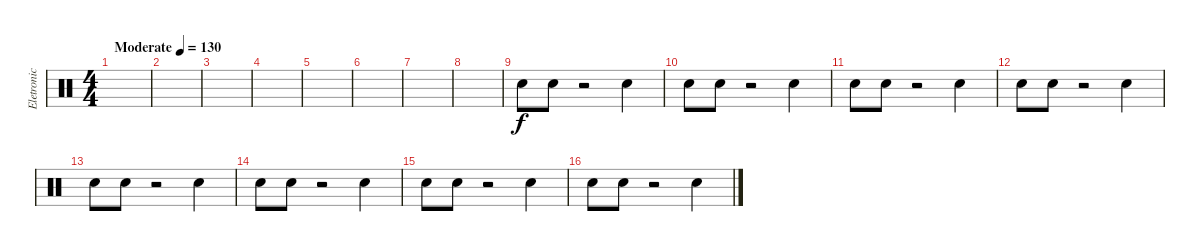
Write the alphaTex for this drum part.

\track ("Eletronic drum" "Eletronic ") {instrument percussion}
\staff {score}
\articulation defaults
\ts (4 4)
\tempo (130 "Moderate")
\clef neutral
\ks c
|
|
|
|
|
|
|
|
"Snare (hit) 2".8 "Hand Clap (hit)".8 r.2 "Hand Clap (hit)".4 |
"Snare (hit) 2".8 "Hand Clap (hit)".8 r.2 "Hand Clap (hit)".4 |
"Snare (hit) 2".8 "Hand Clap (hit)".8 r.2 "Hand Clap (hit)".4 |
"Snare (hit) 2".8 "Hand Clap (hit)".8 r.2 "Hand Clap (hit)".4 |
"Snare (hit) 2".8 "Hand Clap (hit)".8 r.2 "Hand Clap (hit)".4 |
"Snare (hit) 2".8 "Hand Clap (hit)".8 r.2 "Hand Clap (hit)".4 |
"Snare (hit) 2".8 "Hand Clap (hit)".8 r.2 "Hand Clap (hit)".4 |
"Snare (hit) 2".8 "Hand Clap (hit)".8 r.2 "Hand Clap (hit)".4
